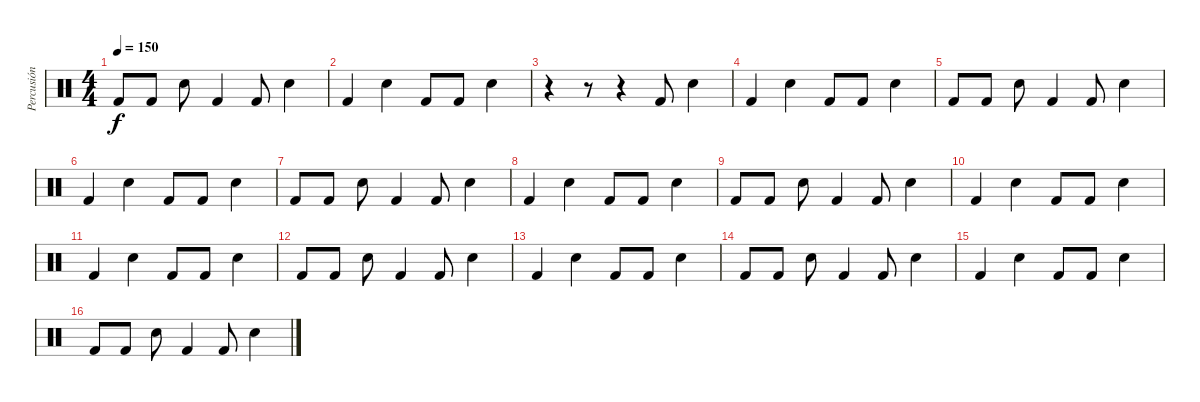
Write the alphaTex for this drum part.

\track ("Percusión" "Percusión") {instrument percussion}
\staff {score}
\articulation defaults
\ts (4 4)
\tempo 150
\clef neutral
\ks c "Kick (hit) 2".8{dy f} "Kick (hit) 2".8 "Snare (hit) 2".8 "Kick (hit) 2".4 "Kick (hit) 2".8 "Snare (hit) 2".4
|
"Kick (hit) 2".4 "Snare (hit) 2".4 "Kick (hit) 2".8 "Kick (hit) 2".8 "Snare (hit) 2".4 |
r.4 r.8 r.4 "Kick (hit) 2".8 "Snare (hit) 2".4 |
"Kick (hit) 2".4 "Snare (hit) 2".4 "Kick (hit) 2".8 "Kick (hit) 2".8 "Snare (hit) 2".4 |
"Kick (hit) 2".8 "Kick (hit) 2".8 "Snare (hit) 2".8 "Kick (hit) 2".4 "Kick (hit) 2".8 "Snare (hit) 2".4 |
"Kick (hit) 2".4 "Snare (hit) 2".4 "Kick (hit) 2".8 "Kick (hit) 2".8 "Snare (hit) 2".4 |
"Kick (hit) 2".8 "Kick (hit) 2".8 "Snare (hit) 2".8 "Kick (hit) 2".4 "Kick (hit) 2".8 "Snare (hit) 2".4 |
"Kick (hit) 2".4 "Snare (hit) 2".4 "Kick (hit) 2".8 "Kick (hit) 2".8 "Snare (hit) 2".4 |
"Kick (hit) 2".8 "Kick (hit) 2".8 "Snare (hit) 2".8 "Kick (hit) 2".4 "Kick (hit) 2".8 "Snare (hit) 2".4 |
"Kick (hit) 2".4 "Snare (hit) 2".4 "Kick (hit) 2".8 "Kick (hit) 2".8 "Snare (hit) 2".4 |
"Kick (hit) 2".4 "Snare (hit) 2".4 "Kick (hit) 2".8 "Kick (hit) 2".8 "Snare (hit) 2".4 |
"Kick (hit) 2".8 "Kick (hit) 2".8 "Snare (hit) 2".8 "Kick (hit) 2".4 "Kick (hit) 2".8 "Snare (hit) 2".4 |
"Kick (hit) 2".4 "Snare (hit) 2".4 "Kick (hit) 2".8 "Kick (hit) 2".8 "Snare (hit) 2".4 |
"Kick (hit) 2".8 "Kick (hit) 2".8 "Snare (hit) 2".8 "Kick (hit) 2".4 "Kick (hit) 2".8 "Snare (hit) 2".4 |
"Kick (hit) 2".4 "Snare (hit) 2".4 "Kick (hit) 2".8 "Kick (hit) 2".8 "Snare (hit) 2".4 |
"Kick (hit) 2".8 "Kick (hit) 2".8 "Snare (hit) 2".8 "Kick (hit) 2".4 "Kick (hit) 2".8 "Snare (hit) 2".4
